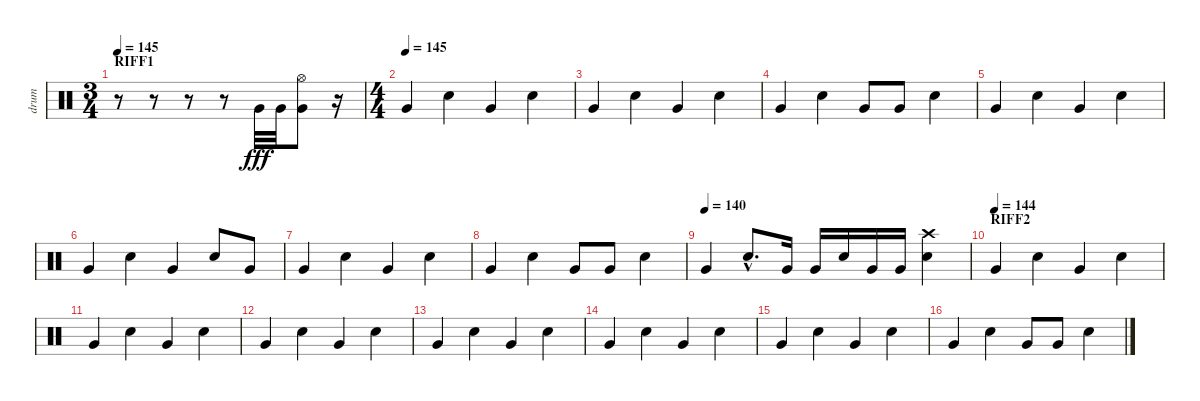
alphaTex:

\track ("drum" "drum") {instrument percussion}
\staff {score}
\articulation defaults
\ts (3 4)
\section ("" "RIFF1")
\tempo 145
\tempo 125
\tempo 145
\clef neutral
\ks c
r.8{dy fff} r.8 r.8 r.8 "Very Low Tom (hit)".32 "Very Low Tom (hit)".32 ("Very Low Tom (hit)" "Hi-Hat (open)").8 r.16 |
\ts (4 4)
\tempo (145)
"Very Low Tom (hit)".4 "Electric Snare (hit)".4 "Very Low Tom (hit)".4 "Electric Snare (hit)".4 |
"Very Low Tom (hit)".4 "Electric Snare (hit)".4 "Very Low Tom (hit)".4 "Electric Snare (hit)".4 |
"Very Low Tom (hit)".4 "Electric Snare (hit)".4 "Very Low Tom (hit)".8 "Very Low Tom (hit)".8 "Electric Snare (hit)".4 |
"Very Low Tom (hit)".4 "Electric Snare (hit)".4 "Very Low Tom (hit)".4 "Electric Snare (hit)".4 |
"Very Low Tom (hit)".4 "Electric Snare (hit)".4 "Very Low Tom (hit)".4 "Electric Snare (hit)".8 "Very Low Tom (hit)".8 |
"Very Low Tom (hit)".4 "Electric Snare (hit)".4 "Very Low Tom (hit)".4 "Electric Snare (hit)".4 |
"Very Low Tom (hit)".4 "Electric Snare (hit)".4 "Very Low Tom (hit)".8 "Very Low Tom (hit)".8 "Electric Snare (hit)".4 |
\tempo (140)
"Very Low Tom (hit)".4 "Electric Snare (hit)"{hac}.8{d} "Very Low Tom (hit)".16 "Very Low Tom (hit)".16 "Electric Snare (hit)".16 "Very Low Tom (hit)".16 "Very Low Tom (hit)".16 ("Electric Snare (hit)" "Crash high (hit)").4 |
\section ("" "RIFF2")
\tempo (144)
"Very Low Tom (hit)".4 "Electric Snare (hit)".4 "Very Low Tom (hit)".4 "Electric Snare (hit)".4 |
"Very Low Tom (hit)".4 "Electric Snare (hit)".4 "Very Low Tom (hit)".4 "Electric Snare (hit)".4 |
"Very Low Tom (hit)".4 "Electric Snare (hit)".4 "Very Low Tom (hit)".4 "Electric Snare (hit)".4 |
"Very Low Tom (hit)".4 "Electric Snare (hit)".4 "Very Low Tom (hit)".4 "Electric Snare (hit)".4 |
"Very Low Tom (hit)".4 "Electric Snare (hit)".4 "Very Low Tom (hit)".4 "Electric Snare (hit)".4 |
"Very Low Tom (hit)".4 "Electric Snare (hit)".4 "Very Low Tom (hit)".4 "Electric Snare (hit)".4 |
"Very Low Tom (hit)".4 "Electric Snare (hit)".4 "Very Low Tom (hit)".8 "Very Low Tom (hit)".8 "Electric Snare (hit)".4
